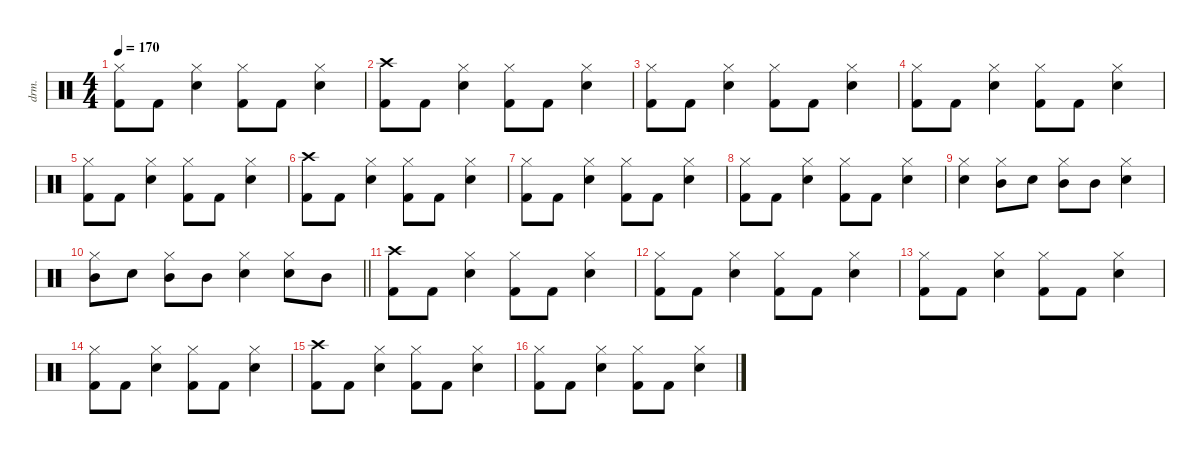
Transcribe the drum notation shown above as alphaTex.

\defaultSystemsLayout 4
\hideDynamics
\bracketExtendMode nobrackets
\otherSystemsTrackNameOrientation horizontal
\track ("Percussion" "drm.") {instrument percussion}
\staff {score}
\articulation defaults
\ts (4 4)
\tempo 170
\clef neutral
\ks c
("Hi-Hat (closed)" "Kick (hit) 2").8{dy f beam Down} "Kick (hit) 2".8{beam Down} ("Hi-Hat (closed)" "Snare (hit) 2").4{beam Down} ("Hi-Hat (closed)" "Kick (hit) 2").8{beam Down} "Kick (hit) 2".8{beam Down} ("Hi-Hat (closed)" "Snare (hit) 2").4{beam Down} |
("Crash high (hit)" "Kick (hit) 2").8{beam Down} "Kick (hit) 2".8{beam Down} ("Hi-Hat (closed)" "Snare (hit) 2").4{beam Down} ("Hi-Hat (closed)" "Kick (hit) 2").8{beam Down} "Kick (hit) 2".8{beam Down} ("Hi-Hat (closed)" "Snare (hit) 2").4{beam Down} |
("Hi-Hat (closed)" "Kick (hit) 2").8{beam Down} "Kick (hit) 2".8{beam Down} ("Hi-Hat (closed)" "Snare (hit) 2").4{beam Down} ("Hi-Hat (closed)" "Kick (hit) 2").8{beam Down} "Kick (hit) 2".8{beam Down} ("Hi-Hat (closed)" "Snare (hit) 2").4{beam Down} |
("Hi-Hat (closed)" "Kick (hit) 2").8{beam Down} "Kick (hit) 2".8{beam Down} ("Hi-Hat (closed)" "Snare (hit) 2").4{beam Down} ("Hi-Hat (closed)" "Kick (hit) 2").8{beam Down} "Kick (hit) 2".8{beam Down} ("Hi-Hat (closed)" "Snare (hit) 2").4{beam Down} |
("Hi-Hat (closed)" "Kick (hit) 2").8{beam Down} "Kick (hit) 2".8{beam Down} ("Hi-Hat (closed)" "Snare (hit) 2").4{beam Down} ("Hi-Hat (closed)" "Kick (hit) 2").8{beam Down} "Kick (hit) 2".8{beam Down} ("Hi-Hat (closed)" "Snare (hit) 2").4{beam Down} |
("Crash high (hit)" "Kick (hit) 2").8{beam Down} "Kick (hit) 2".8{beam Down} ("Hi-Hat (closed)" "Snare (hit) 2").4{beam Down} ("Hi-Hat (closed)" "Kick (hit) 2").8{beam Down} "Kick (hit) 2".8{beam Down} ("Hi-Hat (closed)" "Snare (hit) 2").4{beam Down} |
("Hi-Hat (closed)" "Kick (hit) 2").8{beam Down} "Kick (hit) 2".8{beam Down} ("Hi-Hat (closed)" "Snare (hit) 2").4{beam Down} ("Hi-Hat (closed)" "Kick (hit) 2").8{beam Down} "Kick (hit) 2".8{beam Down} ("Hi-Hat (closed)" "Snare (hit) 2").4{beam Down} |
("Hi-Hat (closed)" "Kick (hit) 2").8{beam Down} "Kick (hit) 2".8{beam Down} ("Hi-Hat (closed)" "Snare (hit) 2").4{beam Down} ("Hi-Hat (closed)" "Kick (hit) 2").8{beam Down} "Kick (hit) 2".8{beam Down} ("Hi-Hat (closed)" "Snare (hit) 2").4{beam Down} |
("Hi-Hat (closed)" "Snare (hit) 2").4{beam Down} ("Hi-Hat (closed)" "Mid Tom (hit)").8{beam Down} "Snare (hit) 2".8{beam Down} ("Hi-Hat (closed)" "Mid Tom (hit)").8{beam Down} "Mid Tom (hit)".8{beam Down} ("Hi-Hat (closed)" "Snare (hit) 2").4{beam Down} |
\barLineRight lightlight
("Hi-Hat (closed)" "Mid Tom (hit)").8{beam Down} "Snare (hit) 2".8{beam Down} ("Hi-Hat (closed)" "Mid Tom (hit)").8{beam Down} "Mid Tom (hit)".8{beam Down} ("Hi-Hat (closed)" "Snare (hit) 2").4{beam Down} ("Hi-Hat (closed)" "Snare (hit) 2").8{beam Down} "Mid Tom (hit)".8{beam Down} |
("Crash high (hit)" "Kick (hit) 2").8{beam Down} "Kick (hit) 2".8{beam Down} ("Hi-Hat (closed)" "Snare (hit) 2").4{beam Down} ("Hi-Hat (closed)" "Kick (hit) 2").8{beam Down} "Kick (hit) 2".8{beam Down} ("Hi-Hat (closed)" "Snare (hit) 2").4{beam Down} |
("Hi-Hat (closed)" "Kick (hit) 2").8{beam Down} "Kick (hit) 2".8{beam Down} ("Hi-Hat (closed)" "Snare (hit) 2").4{beam Down} ("Hi-Hat (closed)" "Kick (hit) 2").8{beam Down} "Kick (hit) 2".8{beam Down} ("Hi-Hat (closed)" "Snare (hit) 2").4{beam Down} |
("Hi-Hat (closed)" "Kick (hit) 2").8{beam Down} "Kick (hit) 2".8{beam Down} ("Hi-Hat (closed)" "Snare (hit) 2").4{beam Down} ("Hi-Hat (closed)" "Kick (hit) 2").8{beam Down} "Kick (hit) 2".8{beam Down} ("Hi-Hat (closed)" "Snare (hit) 2").4{beam Down} |
("Hi-Hat (closed)" "Kick (hit) 2").8{beam Down} "Kick (hit) 2".8{beam Down} ("Hi-Hat (closed)" "Snare (hit) 2").4{beam Down} ("Hi-Hat (closed)" "Kick (hit) 2").8{beam Down} "Kick (hit) 2".8{beam Down} ("Hi-Hat (closed)" "Snare (hit) 2").4{beam Down} |
("Crash high (hit)" "Kick (hit) 2").8{beam Down} "Kick (hit) 2".8{beam Down} ("Hi-Hat (closed)" "Snare (hit) 2").4{beam Down} ("Hi-Hat (closed)" "Kick (hit) 2").8{beam Down} "Kick (hit) 2".8{beam Down} ("Hi-Hat (closed)" "Snare (hit) 2").4{beam Down} |
("Hi-Hat (closed)" "Kick (hit) 2").8{beam Down} "Kick (hit) 2".8{beam Down} ("Hi-Hat (closed)" "Snare (hit) 2").4{beam Down} ("Hi-Hat (closed)" "Kick (hit) 2").8{beam Down} "Kick (hit) 2".8{beam Down} ("Hi-Hat (closed)" "Snare (hit) 2").4{beam Down}
